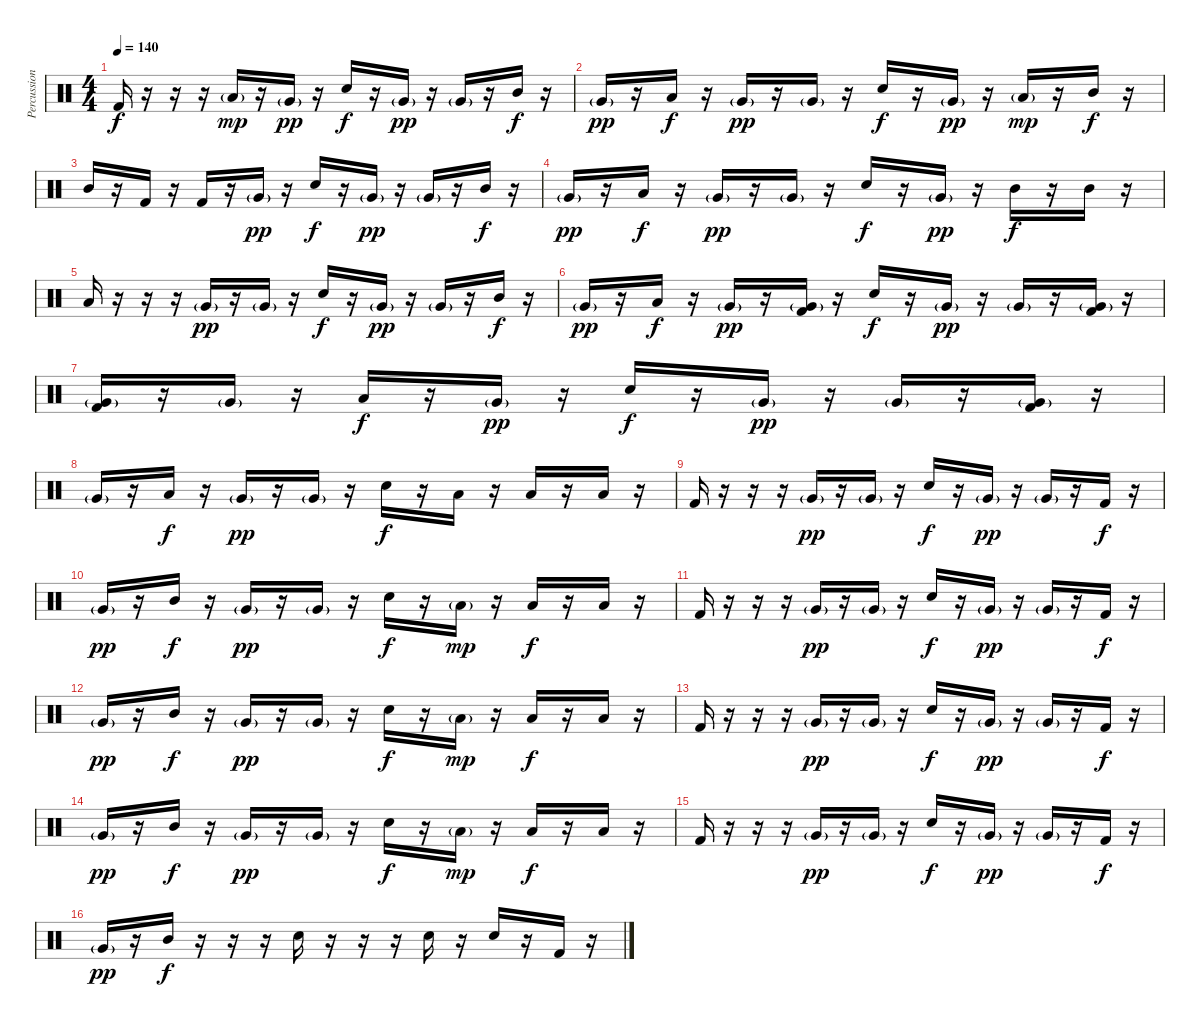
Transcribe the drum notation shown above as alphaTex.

\track ("Percussion" "Percussion") {instrument percussion}
\staff {score}
\articulation defaults
\ts (4 4)
\section ("" "")
\tempo 140
\clef neutral
\ks c "Kick (hit) 2".16{dy f}
r.16 r.16 r.16 "Low Tom (hit)"{g}.16{dy mp} r.16 "Very Low Tom (hit)"{g}.16{dy pp} r.16 "Electric Snare (hit)".16{dy f} r.16 "Very Low Tom (hit)"{g}.16{dy pp} r.16 "Very Low Tom (hit)"{g}.16 r.16 "Mid Tom (hit)".16{dy f} r.16 |
"Very Low Tom (hit)"{g}.16{dy pp} r.16 "Low Tom (hit)".16{dy f} r.16 "Very Low Tom (hit)"{g}.16{dy pp} r.16 "Very Low Tom (hit)"{g}.16 r.16 "Electric Snare (hit)".16{dy f} r.16 "Very Low Tom (hit)"{g}.16{dy pp} r.16 "Low Tom (hit)"{g}.16{dy mp} r.16 "Mid Tom (hit)".16{dy f} r.16 |
"Mid Tom (hit)".16 r.16 "Kick (hit) 2".16 r.16 "Kick (hit) 2".16 r.16 "Very Low Tom (hit)"{g}.16{dy pp} r.16 "Electric Snare (hit)".16{dy f} r.16 "Very Low Tom (hit)"{g}.16{dy pp} r.16 "Very Low Tom (hit)"{g}.16 r.16 "Mid Tom (hit)".16{dy f} r.16 |
"Very Low Tom (hit)"{g}.16{dy pp} r.16 "Low Tom (hit)".16{dy f} r.16 "Very Low Tom (hit)"{g}.16{dy pp} r.16 "Very Low Tom (hit)"{g}.16 r.16 "Electric Snare (hit)".16{dy f} r.16 "Very Low Tom (hit)"{g}.16{dy pp} r.16 "Mid Tom (hit)".16{dy f} r.16 "Mid Tom (hit)".16 r.16 |
"Low Tom (hit)".16 r.16 r.16 r.16 "Very Low Tom (hit)"{g}.16{dy pp} r.16 "Very Low Tom (hit)"{g}.16 r.16 "Electric Snare (hit)".16{dy f} r.16 "Very Low Tom (hit)"{g}.16{dy pp} r.16 "Very Low Tom (hit)"{g}.16 r.16 "Mid Tom (hit)".16{dy f} r.16 |
"Very Low Tom (hit)"{g}.16{dy pp} r.16 "Low Tom (hit)".16{dy f} r.16 "Very Low Tom (hit)"{g}.16{dy pp} r.16 ("Very Low Tom (hit)"{g} "Kick (hit) 2").16 r.16 "Electric Snare (hit)".16{dy f} r.16 "Very Low Tom (hit)"{g}.16{dy pp} r.16 "Very Low Tom (hit)"{g}.16 r.16 ("Very Low Tom (hit)"{g} "Kick (hit) 2").16 r.16 |
("Very Low Tom (hit)"{g} "Kick (hit) 2").16 r.16 "Very Low Tom (hit)"{g}.16 r.16 "Low Tom (hit)".16{dy f} r.16 "Very Low Tom (hit)"{g}.16{dy pp} r.16 "Electric Snare (hit)".16{dy f} r.16 "Very Low Tom (hit)"{g}.16{dy pp} r.16 "Very Low Tom (hit)"{g}.16 r.16 ("Very Low Tom (hit)"{g} "Kick (hit) 2").16 r.16 |
"Very Low Tom (hit)"{g}.16 r.16 "Low Tom (hit)".16{dy f} r.16 "Very Low Tom (hit)"{g}.16{dy pp} r.16 "Very Low Tom (hit)"{g}.16 r.16 "Electric Snare (hit)".16{dy f} r.16 "Low Tom (hit)".16 r.16 "Low Tom (hit)".16 r.16 "Low Tom (hit)".16 r.16 |
"Kick (hit) 2".16 r.16 r.16 r.16 "Very Low Tom (hit)"{g}.16{dy pp} r.16 "Very Low Tom (hit)"{g}.16 r.16 "Electric Snare (hit)".16{dy f} r.16 "Very Low Tom (hit)"{g}.16{dy pp} r.16 "Very Low Tom (hit)"{g}.16 r.16 "Kick (hit) 2".16{dy f} r.16 |
"Very Low Tom (hit)"{g}.16{dy pp} r.16 "Mid Tom (hit)".16{dy f} r.16 "Very Low Tom (hit)"{g}.16{dy pp} r.16 "Very Low Tom (hit)"{g}.16 r.16 "Electric Snare (hit)".16{dy f} r.16 "Low Tom (hit)"{g}.16{dy mp} r.16 "Low Tom (hit)".16{dy f} r.16 "Low Tom (hit)".16 r.16 |
"Kick (hit) 2".16 r.16 r.16 r.16 "Very Low Tom (hit)"{g}.16{dy pp} r.16 "Very Low Tom (hit)"{g}.16 r.16 "Electric Snare (hit)".16{dy f} r.16 "Very Low Tom (hit)"{g}.16{dy pp} r.16 "Very Low Tom (hit)"{g}.16 r.16 "Kick (hit) 2".16{dy f} r.16 |
"Very Low Tom (hit)"{g}.16{dy pp} r.16 "Mid Tom (hit)".16{dy f} r.16 "Very Low Tom (hit)"{g}.16{dy pp} r.16 "Very Low Tom (hit)"{g}.16 r.16 "Electric Snare (hit)".16{dy f} r.16 "Low Tom (hit)"{g}.16{dy mp} r.16 "Low Tom (hit)".16{dy f} r.16 "Low Tom (hit)".16 r.16 |
"Kick (hit) 2".16 r.16 r.16 r.16 "Very Low Tom (hit)"{g}.16{dy pp} r.16 "Very Low Tom (hit)"{g}.16 r.16 "Electric Snare (hit)".16{dy f} r.16 "Very Low Tom (hit)"{g}.16{dy pp} r.16 "Very Low Tom (hit)"{g}.16 r.16 "Kick (hit) 2".16{dy f} r.16 |
"Very Low Tom (hit)"{g}.16{dy pp} r.16 "Mid Tom (hit)".16{dy f} r.16 "Very Low Tom (hit)"{g}.16{dy pp} r.16 "Very Low Tom (hit)"{g}.16 r.16 "Electric Snare (hit)".16{dy f} r.16 "Low Tom (hit)"{g}.16{dy mp} r.16 "Low Tom (hit)".16{dy f} r.16 "Low Tom (hit)".16 r.16 |
"Kick (hit) 2".16 r.16 r.16 r.16 "Very Low Tom (hit)"{g}.16{dy pp} r.16 "Very Low Tom (hit)"{g}.16 r.16 "Electric Snare (hit)".16{dy f} r.16 "Very Low Tom (hit)"{g}.16{dy pp} r.16 "Very Low Tom (hit)"{g}.16 r.16 "Kick (hit) 2".16{dy f} r.16 |
"Very Low Tom (hit)"{g}.16{dy pp} r.16 "Mid Tom (hit)".16{dy f} r.16 r.16 r.16 "Electric Snare (hit)".16 r.16 r.16 r.16 "Electric Snare (hit)".16 r.16 "Electric Snare (hit)".16 r.16 "Kick (hit) 2".16 r.16
